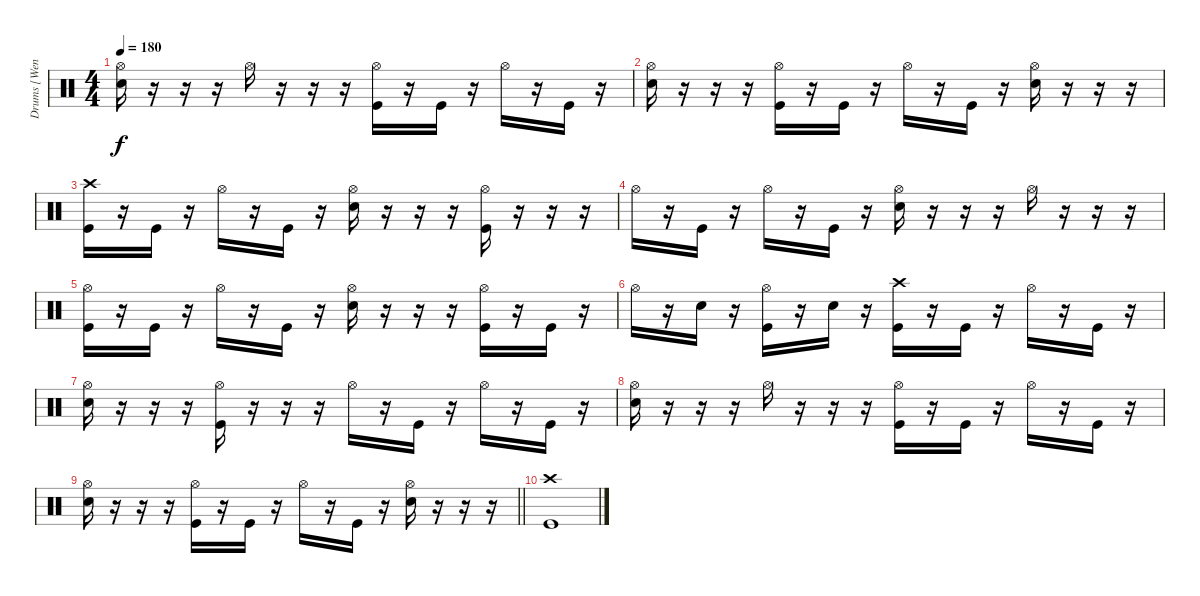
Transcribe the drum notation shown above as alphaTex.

\track ("Drums [Wengren]" "Drums [Wen") {instrument percussion}
\staff {score}
\articulation defaults
\ts (4 4)
\tempo 180
\clef neutral
\ks c
("Hi-Hat (open)" "Electric Snare (hit)").16{dy f} r.16 r.16 r.16 "Hi-Hat (open)".16 r.16 r.16 r.16 ("Hi-Hat (open)" "Kick (hit)").16 r.16 "Kick (hit)".16 r.16 "Hi-Hat (open)".16 r.16 "Kick (hit)".16 r.16 |
("Hi-Hat (open)" "Electric Snare (hit)").16 r.16 r.16 r.16 ("Hi-Hat (open)" "Kick (hit)").16 r.16 "Kick (hit)".16 r.16 "Hi-Hat (open)".16 r.16 "Kick (hit)".16 r.16 ("Hi-Hat (open)" "Electric Snare (hit)").16 r.16 r.16 r.16 |
("Crash high (hit)" "Kick (hit)").16 r.16 "Kick (hit)".16 r.16 "Hi-Hat (open)".16 r.16 "Kick (hit)".16 r.16 ("Hi-Hat (open)" "Electric Snare (hit)").16 r.16 r.16 r.16 ("Hi-Hat (open)" "Kick (hit)").16 r.16 r.16 r.16 |
"Hi-Hat (open)".16 r.16 "Kick (hit)".16 r.16 "Hi-Hat (open)".16 r.16 "Kick (hit)".16 r.16 ("Hi-Hat (open)" "Electric Snare (hit)").16 r.16 r.16 r.16 "Hi-Hat (open)".16 r.16 r.16 r.16 |
("Hi-Hat (open)" "Kick (hit)").16 r.16 "Kick (hit)".16 r.16 "Hi-Hat (open)".16 r.16 "Kick (hit)".16 r.16 ("Hi-Hat (open)" "Electric Snare (hit)").16 r.16 r.16 r.16 ("Hi-Hat (open)" "Kick (hit)").16 r.16 "Kick (hit)".16 r.16 |
"Hi-Hat (open)".16 r.16 "Electric Snare (hit)".16 r.16 ("Hi-Hat (open)" "Kick (hit)").16 r.16 "Electric Snare (hit)".16 r.16 ("Crash high (hit)" "Kick (hit)").16 r.16 "Kick (hit)".16 r.16 "Hi-Hat (open)".16 r.16 "Kick (hit)".16 r.16 |
("Hi-Hat (open)" "Electric Snare (hit)").16 r.16 r.16 r.16 ("Hi-Hat (open)" "Kick (hit)").16 r.16 r.16 r.16 "Hi-Hat (open)".16 r.16 "Kick (hit)".16 r.16 "Hi-Hat (open)".16 r.16 "Kick (hit)".16 r.16 |
("Hi-Hat (open)" "Electric Snare (hit)").16 r.16 r.16 r.16 "Hi-Hat (open)".16 r.16 r.16 r.16 ("Hi-Hat (open)" "Kick (hit)").16 r.16 "Kick (hit)".16 r.16 "Hi-Hat (open)".16 r.16 "Kick (hit)".16 r.16 |
\barLineRight lightlight
("Hi-Hat (open)" "Electric Snare (hit)").16 r.16 r.16 r.16 ("Hi-Hat (open)" "Kick (hit)").16 r.16 "Kick (hit)".16 r.16 "Hi-Hat (open)".16 r.16 "Kick (hit)".16 r.16 ("Hi-Hat (open)" "Electric Snare (hit)").16 r.16 r.16 r.16 |
("Crash high (hit)" "Kick (hit)").1
